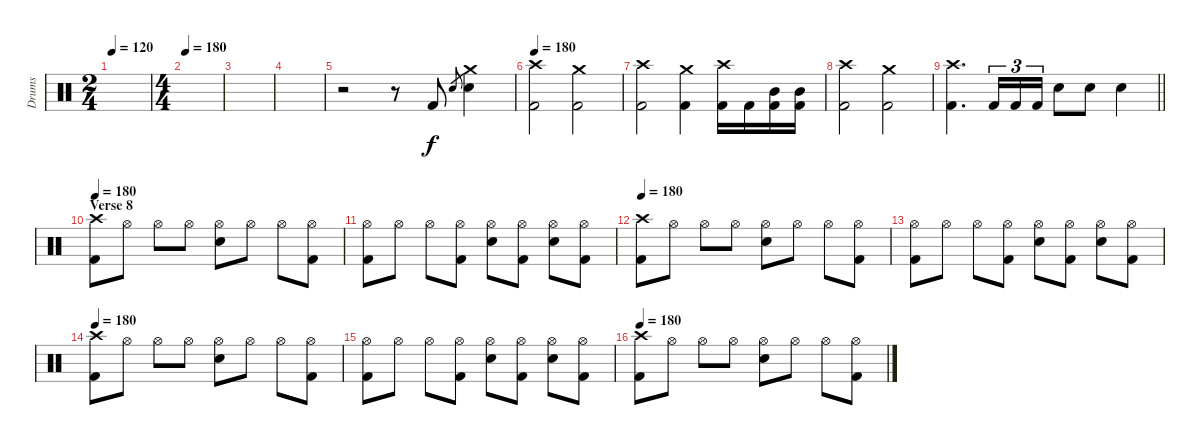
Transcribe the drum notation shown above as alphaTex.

\track ("Drums" "Drums") {instrument percussion}
\staff {score}
\articulation defaults
\ts (2 4)
\tempo 120
\clef neutral
\ks c
|
\ts (4 4)
\tempo 180
|
|
|
r.2 r.8 "Kick (hit) 2".8 "Electric Snare (hit)".8{gr} ("Crash medium (hit)" "Electric Snare (hit)").4 |
\tempo 180
("Crash high (hit)" "Kick (hit) 2").2 ("Crash medium (hit)" "Kick (hit) 2").2 |
("Crash high (hit)" "Kick (hit) 2").2 ("Crash medium (hit)" "Kick (hit) 2").4 ("Crash high (hit)" "Kick (hit) 2").16 "Kick (hit) 2".16 ("Mid Tom (hit)" "Kick (hit) 2").16 ("Mid Tom (hit)" "Kick (hit) 2").16 |
("Crash high (hit)" "Kick (hit) 2").2 ("Crash medium (hit)" "Kick (hit) 2").2 |
\barLineRight lightlight
("Crash high (hit)" "Kick (hit) 2").4{d} "Kick (hit) 2".16{tu (3 2)} "Kick (hit) 2".16{tu (3 2)} "Kick (hit) 2".16{tu (3 2)} "Electric Snare (hit)".8 "Electric Snare (hit)".8 "Electric Snare (hit)".4 |
\section ("" "Verse 8")
\tempo 180
("Crash high (hit)" "Kick (hit) 2").8 "Hi-Hat (open)".8 "Hi-Hat (open)".8 "Hi-Hat (open)".8 ("Hi-Hat (open)" "Electric Snare (hit)").8 "Hi-Hat (open)".8 "Hi-Hat (open)".8 ("Hi-Hat (open)" "Kick (hit) 2").8 |
("Hi-Hat (open)" "Kick (hit) 2").8 "Hi-Hat (open)".8 "Hi-Hat (open)".8 ("Hi-Hat (open)" "Kick (hit) 2").8 ("Hi-Hat (open)" "Electric Snare (hit)").8 ("Hi-Hat (open)" "Kick (hit) 2").8 ("Hi-Hat (open)" "Electric Snare (hit)").8 ("Hi-Hat (open)" "Kick (hit) 2").8 |
\tempo 180
("Crash high (hit)" "Kick (hit) 2").8 "Hi-Hat (open)".8 "Hi-Hat (open)".8 "Hi-Hat (open)".8 ("Hi-Hat (open)" "Electric Snare (hit)").8 "Hi-Hat (open)".8 "Hi-Hat (open)".8 ("Hi-Hat (open)" "Kick (hit) 2").8 |
("Hi-Hat (open)" "Kick (hit) 2").8 "Hi-Hat (open)".8 "Hi-Hat (open)".8 ("Hi-Hat (open)" "Kick (hit) 2").8 ("Hi-Hat (open)" "Electric Snare (hit)").8 ("Hi-Hat (open)" "Kick (hit) 2").8 ("Hi-Hat (open)" "Electric Snare (hit)").8 ("Hi-Hat (open)" "Kick (hit) 2").8 |
\tempo 180
("Crash high (hit)" "Kick (hit) 2").8 "Hi-Hat (open)".8 "Hi-Hat (open)".8 "Hi-Hat (open)".8 ("Hi-Hat (open)" "Electric Snare (hit)").8 "Hi-Hat (open)".8 "Hi-Hat (open)".8 ("Hi-Hat (open)" "Kick (hit) 2").8 |
("Hi-Hat (open)" "Kick (hit) 2").8 "Hi-Hat (open)".8 "Hi-Hat (open)".8 ("Hi-Hat (open)" "Kick (hit) 2").8 ("Hi-Hat (open)" "Electric Snare (hit)").8 ("Hi-Hat (open)" "Kick (hit) 2").8 ("Hi-Hat (open)" "Electric Snare (hit)").8 ("Hi-Hat (open)" "Kick (hit) 2").8 |
\tempo 180
("Crash high (hit)" "Kick (hit) 2").8 "Hi-Hat (open)".8 "Hi-Hat (open)".8 "Hi-Hat (open)".8 ("Hi-Hat (open)" "Electric Snare (hit)").8 "Hi-Hat (open)".8 "Hi-Hat (open)".8 ("Hi-Hat (open)" "Kick (hit) 2").8
